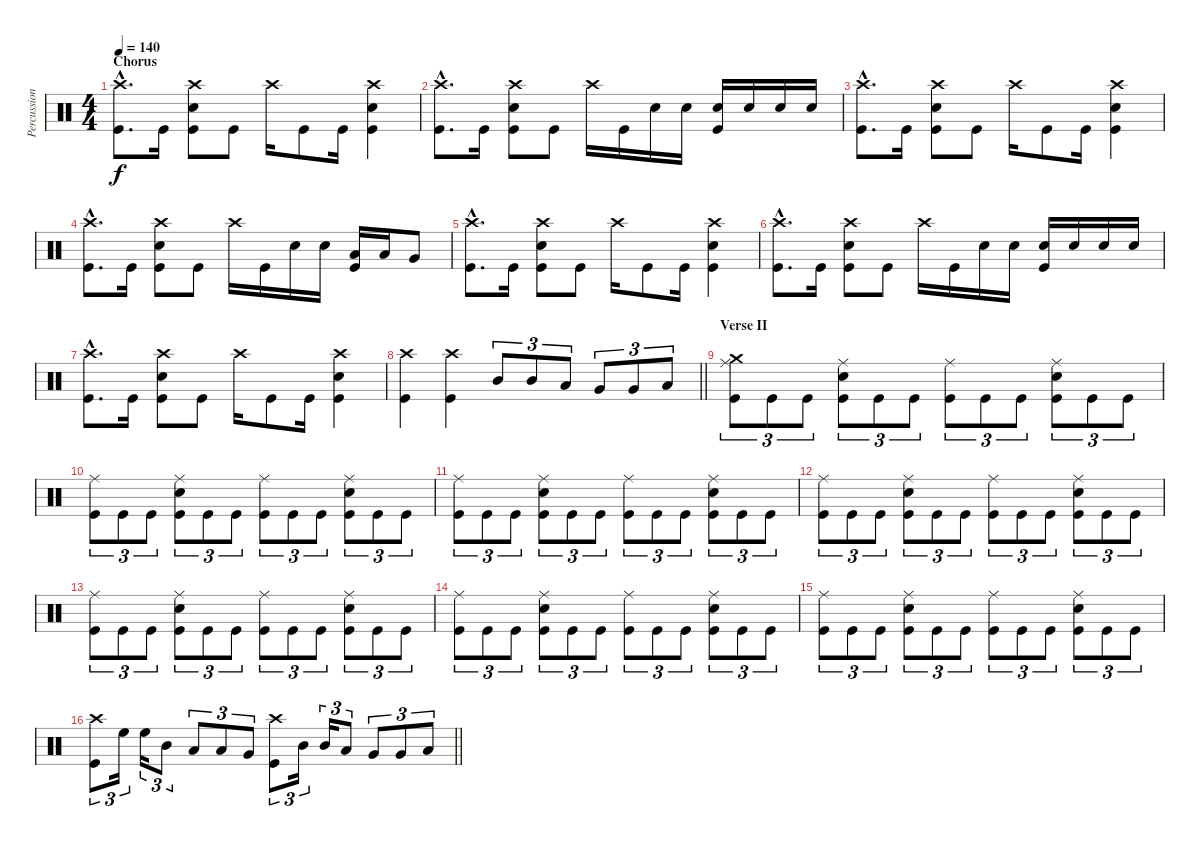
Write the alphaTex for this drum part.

\track ("Percussion" "Percussion") {instrument percussion}
\staff {score}
\articulation defaults
\ts (4 4)
\section ("" "Chorus")
\tempo 140
\clef neutral
\ks c
("Crash high (hit)"{hac} "Kick (hit)"{hac}).8{d dy f} "Kick (hit)".16 ("Crash high (hit)" "Snare (hit) 2" "Kick (hit)").8 "Kick (hit)".8 "Crash high (hit)".16 "Kick (hit)".8 "Kick (hit)".16 ("Crash high (hit)" "Snare (hit) 2" "Kick (hit)").4 |
("Crash high (hit)"{hac} "Kick (hit)"{hac}).8{d} "Kick (hit)".16 ("Crash high (hit)" "Snare (hit) 2" "Kick (hit)").8 "Kick (hit)".8 "Crash high (hit)".16 "Kick (hit)".16 "Snare (hit) 2".16 "Snare (hit) 2".16 ("Snare (hit) 2" "Kick (hit)").16 "Snare (hit) 2".16 "Snare (hit) 2".16 "Snare (hit) 2".16 |
("Crash high (hit)"{hac} "Kick (hit)"{hac}).8{d} "Kick (hit)".16 ("Crash high (hit)" "Snare (hit) 2" "Kick (hit)").8 "Kick (hit)".8 "Crash high (hit)".16 "Kick (hit)".8 "Kick (hit)".16 ("Crash high (hit)" "Snare (hit) 2" "Kick (hit)").4 |
("Crash high (hit)"{hac} "Kick (hit)"{hac}).8{d} "Kick (hit)".16 ("Crash high (hit)" "Snare (hit) 2" "Kick (hit)").8 "Kick (hit)".8 "Crash high (hit)".16 "Kick (hit)".16 "Snare (hit) 2".16 "Snare (hit) 2".16 ("Low Tom (hit)" "Kick (hit)").16 "Low Tom (hit)".16 "Very Low Tom (hit)".8 |
("Crash high (hit)"{hac} "Kick (hit)"{hac}).8{d} "Kick (hit)".16 ("Crash high (hit)" "Snare (hit) 2" "Kick (hit)").8 "Kick (hit)".8 "Crash high (hit)".16 "Kick (hit)".8 "Kick (hit)".16 ("Crash high (hit)" "Snare (hit) 2" "Kick (hit)").4 |
("Crash high (hit)"{hac} "Kick (hit)"{hac}).8{d} "Kick (hit)".16 ("Crash high (hit)" "Snare (hit) 2" "Kick (hit)").8 "Kick (hit)".8 "Crash high (hit)".16 "Kick (hit)".16 "Snare (hit) 2".16 "Snare (hit) 2".16 ("Snare (hit) 2" "Kick (hit)").16 "Snare (hit) 2".16 "Snare (hit) 2".16 "Snare (hit) 2".16 |
("Crash high (hit)"{hac} "Kick (hit)"{hac}).8{d} "Kick (hit)".16 ("Crash high (hit)" "Snare (hit) 2" "Kick (hit)").8 "Kick (hit)".8 "Crash high (hit)".16 "Kick (hit)".8 "Kick (hit)".16 ("Crash high (hit)" "Snare (hit) 2" "Kick (hit)").4 |
\barLineRight lightlight
("Crash high (hit)" "Kick (hit)").4 ("Crash high (hit)" "Kick (hit)").4 "Mid Tom (hit)".8{tu (3 2)} "Mid Tom (hit)".8{tu (3 2)} "Low Tom (hit)".8{tu (3 2)} "Very Low Tom (hit)".8{tu (3 2)} "Very Low Tom (hit)".8{tu (3 2)} "Low Floor Tom (hit)".8{tu (3 2)} |
\section ("" "Verse II")
("Crash medium (hit)" "Ride (middle)" "Kick (hit)").8{tu (3 2)} "Kick (hit)".8{tu (3 2)} "Kick (hit)".8{tu (3 2)} ("Ride (middle)" "Snare (hit) 2" "Kick (hit)").8{tu (3 2)} "Kick (hit)".8{tu (3 2)} "Kick (hit)".8{tu (3 2)} ("Ride (middle)" "Kick (hit)").8{tu (3 2)} "Kick (hit)".8{tu (3 2)} "Kick (hit)".8{tu (3 2)} ("Ride (middle)" "Snare (hit) 2" "Kick (hit)").8{tu (3 2)} "Kick (hit)".8{tu (3 2)} "Kick (hit)".8{tu (3 2)} |
("Ride (middle)" "Kick (hit)").8{tu (3 2)} "Kick (hit)".8{tu (3 2)} "Kick (hit)".8{tu (3 2)} ("Ride (middle)" "Snare (hit) 2" "Kick (hit)").8{tu (3 2)} "Kick (hit)".8{tu (3 2)} "Kick (hit)".8{tu (3 2)} ("Ride (middle)" "Kick (hit)").8{tu (3 2)} "Kick (hit)".8{tu (3 2)} "Kick (hit)".8{tu (3 2)} ("Ride (middle)" "Snare (hit) 2" "Kick (hit)").8{tu (3 2)} "Kick (hit)".8{tu (3 2)} "Kick (hit)".8{tu (3 2)} |
("Ride (middle)" "Kick (hit)").8{tu (3 2)} "Kick (hit)".8{tu (3 2)} "Kick (hit)".8{tu (3 2)} ("Ride (middle)" "Snare (hit) 2" "Kick (hit)").8{tu (3 2)} "Kick (hit)".8{tu (3 2)} "Kick (hit)".8{tu (3 2)} ("Ride (middle)" "Kick (hit)").8{tu (3 2)} "Kick (hit)".8{tu (3 2)} "Kick (hit)".8{tu (3 2)} ("Ride (middle)" "Snare (hit) 2" "Kick (hit)").8{tu (3 2)} "Kick (hit)".8{tu (3 2)} "Kick (hit)".8{tu (3 2)} |
("Ride (middle)" "Kick (hit)").8{tu (3 2)} "Kick (hit)".8{tu (3 2)} "Kick (hit)".8{tu (3 2)} ("Ride (middle)" "Snare (hit) 2" "Kick (hit)").8{tu (3 2)} "Kick (hit)".8{tu (3 2)} "Kick (hit)".8{tu (3 2)} ("Ride (middle)" "Kick (hit)").8{tu (3 2)} "Kick (hit)".8{tu (3 2)} "Kick (hit)".8{tu (3 2)} ("Ride (middle)" "Snare (hit) 2" "Kick (hit)").8{tu (3 2)} "Kick (hit)".8{tu (3 2)} "Kick (hit)".8{tu (3 2)} |
("Ride (middle)" "Kick (hit)").8{tu (3 2)} "Kick (hit)".8{tu (3 2)} "Kick (hit)".8{tu (3 2)} ("Ride (middle)" "Snare (hit) 2" "Kick (hit)").8{tu (3 2)} "Kick (hit)".8{tu (3 2)} "Kick (hit)".8{tu (3 2)} ("Ride (middle)" "Kick (hit)").8{tu (3 2)} "Kick (hit)".8{tu (3 2)} "Kick (hit)".8{tu (3 2)} ("Ride (middle)" "Snare (hit) 2" "Kick (hit)").8{tu (3 2)} "Kick (hit)".8{tu (3 2)} "Kick (hit)".8{tu (3 2)} |
("Ride (middle)" "Kick (hit)").8{tu (3 2)} "Kick (hit)".8{tu (3 2)} "Kick (hit)".8{tu (3 2)} ("Ride (middle)" "Snare (hit) 2" "Kick (hit)").8{tu (3 2)} "Kick (hit)".8{tu (3 2)} "Kick (hit)".8{tu (3 2)} ("Ride (middle)" "Kick (hit)").8{tu (3 2)} "Kick (hit)".8{tu (3 2)} "Kick (hit)".8{tu (3 2)} ("Ride (middle)" "Snare (hit) 2" "Kick (hit)").8{tu (3 2)} "Kick (hit)".8{tu (3 2)} "Kick (hit)".8{tu (3 2)} |
("Ride (middle)" "Kick (hit)").8{tu (3 2)} "Kick (hit)".8{tu (3 2)} "Kick (hit)".8{tu (3 2)} ("Ride (middle)" "Snare (hit) 2" "Kick (hit)").8{tu (3 2)} "Kick (hit)".8{tu (3 2)} "Kick (hit)".8{tu (3 2)} ("Ride (middle)" "Kick (hit)").8{tu (3 2)} "Kick (hit)".8{tu (3 2)} "Kick (hit)".8{tu (3 2)} ("Ride (middle)" "Snare (hit) 2" "Kick (hit)").8{tu (3 2)} "Kick (hit)".8{tu (3 2)} "Kick (hit)".8{tu (3 2)} |
\barLineRight lightlight
("Crash high (hit)" "Kick (hit)").8{tu (3 2)} "High Floor Tom (hit)".16{tu (3 2)} "High Floor Tom (hit)".16{tu (3 2)} "Mid Tom (hit)".8{tu (3 2)} "Low Tom (hit)".8{tu (3 2)} "Low Tom (hit)".8{tu (3 2)} "Very Low Tom (hit)".8{tu (3 2)} ("Crash high (hit)" "Kick (hit)").8{tu (3 2)} "Mid Tom (hit)".16{tu (3 2)} "Mid Tom (hit)".16{tu (3 2)} "Low Tom (hit)".8{tu (3 2)} "Very Low Tom (hit)".8{tu (3 2)} "Very Low Tom (hit)".8{tu (3 2)} "Low Floor Tom (hit)".8{tu (3 2)}
